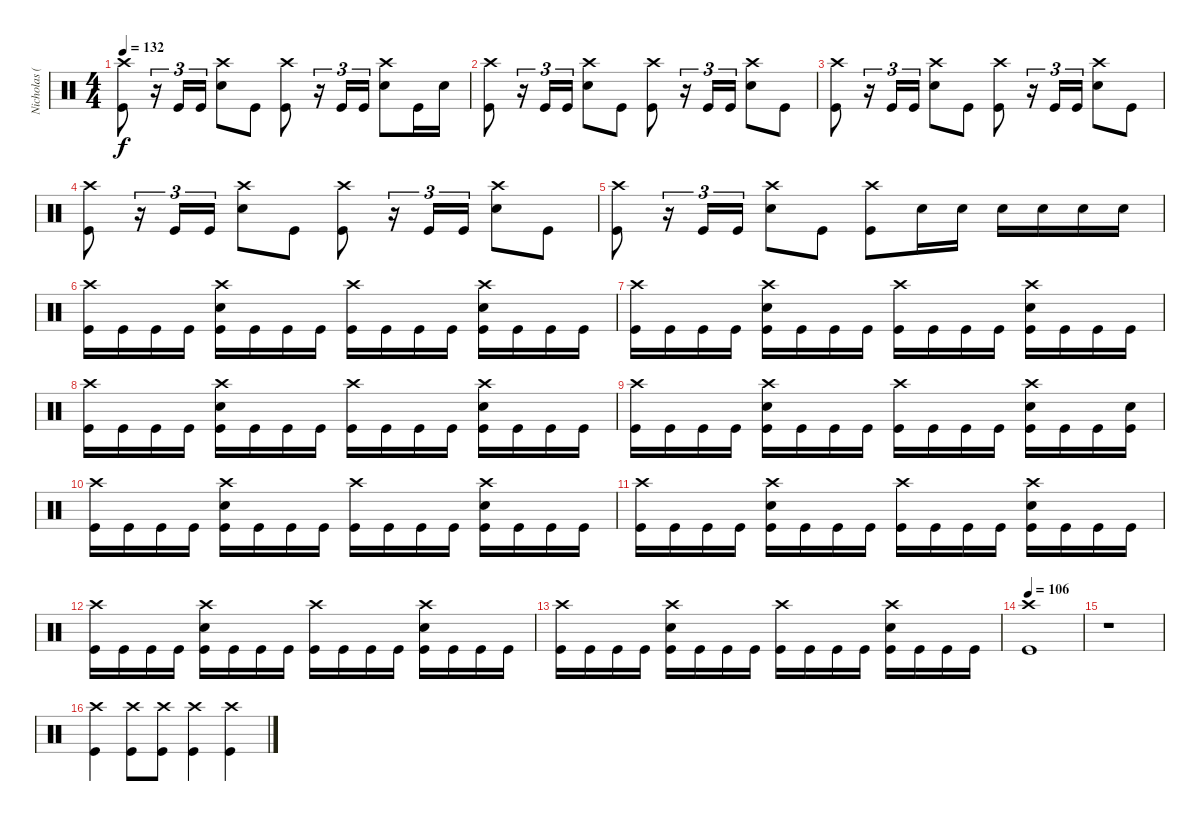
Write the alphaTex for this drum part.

\track ("Nicholas (Drums)" "Nicholas (") {instrument percussion}
\staff {score}
\articulation defaults
\ts (4 4)
\tempo 132
\clef neutral
\ks c
("Crash high (hit)" "Kick (hit)").8{dy f} r.16{tu (3 2)} "Kick (hit)".16{tu (3 2)} "Kick (hit)".16{tu (3 2)} ("Crash high (hit)" "Electric Snare (hit)").8 "Kick (hit)".8 ("Crash high (hit)" "Kick (hit)").8 r.16{tu (3 2)} "Kick (hit)".16{tu (3 2)} "Kick (hit)".16{tu (3 2)} ("Crash high (hit)" "Electric Snare (hit)").8 "Kick (hit)".16 "Electric Snare (hit)".16 |
("Crash high (hit)" "Kick (hit)").8 r.16{tu (3 2)} "Kick (hit)".16{tu (3 2)} "Kick (hit)".16{tu (3 2)} ("Crash high (hit)" "Electric Snare (hit)").8 "Kick (hit)".8 ("Crash high (hit)" "Kick (hit)").8 r.16{tu (3 2)} "Kick (hit)".16{tu (3 2)} "Kick (hit)".16{tu (3 2)} ("Crash high (hit)" "Electric Snare (hit)").8 "Kick (hit)".8 |
("Crash high (hit)" "Kick (hit)").8 r.16{tu (3 2)} "Kick (hit)".16{tu (3 2)} "Kick (hit)".16{tu (3 2)} ("Crash high (hit)" "Electric Snare (hit)").8 "Kick (hit)".8 ("Crash high (hit)" "Kick (hit)").8 r.16{tu (3 2)} "Kick (hit)".16{tu (3 2)} "Kick (hit)".16{tu (3 2)} ("Crash high (hit)" "Electric Snare (hit)").8 "Kick (hit)".8 |
("Crash high (hit)" "Kick (hit)").8 r.16{tu (3 2)} "Kick (hit)".16{tu (3 2)} "Kick (hit)".16{tu (3 2)} ("Crash high (hit)" "Electric Snare (hit)").8 "Kick (hit)".8 ("Crash high (hit)" "Kick (hit)").8 r.16{tu (3 2)} "Kick (hit)".16{tu (3 2)} "Kick (hit)".16{tu (3 2)} ("Crash high (hit)" "Electric Snare (hit)").8 "Kick (hit)".8 |
("Crash high (hit)" "Kick (hit)").8 r.16{tu (3 2)} "Kick (hit)".16{tu (3 2)} "Kick (hit)".16{tu (3 2)} ("Crash high (hit)" "Electric Snare (hit)").8 "Kick (hit)".8 ("Crash high (hit)" "Kick (hit)").8 "Electric Snare (hit)".16 "Electric Snare (hit)".16 "Electric Snare (hit)".16 "Electric Snare (hit)".16 "Electric Snare (hit)".16 "Electric Snare (hit)".16 |
("Crash high (hit)" "Kick (hit)").16 "Kick (hit)".16 "Kick (hit)".16 "Kick (hit)".16 ("Crash high (hit)" "Electric Snare (hit)" "Kick (hit)").16 "Kick (hit)".16 "Kick (hit)".16 "Kick (hit)".16 ("Crash high (hit)" "Kick (hit)").16 "Kick (hit)".16 "Kick (hit)".16 "Kick (hit)".16 ("Crash high (hit)" "Electric Snare (hit)" "Kick (hit)").16 "Kick (hit)".16 "Kick (hit)".16 "Kick (hit)".16 |
("Crash high (hit)" "Kick (hit)").16 "Kick (hit)".16 "Kick (hit)".16 "Kick (hit)".16 ("Crash high (hit)" "Electric Snare (hit)" "Kick (hit)").16 "Kick (hit)".16 "Kick (hit)".16 "Kick (hit)".16 ("Crash high (hit)" "Kick (hit)").16 "Kick (hit)".16 "Kick (hit)".16 "Kick (hit)".16 ("Crash high (hit)" "Electric Snare (hit)" "Kick (hit)").16 "Kick (hit)".16 "Kick (hit)".16 "Kick (hit)".16 |
("Crash high (hit)" "Kick (hit)").16 "Kick (hit)".16 "Kick (hit)".16 "Kick (hit)".16 ("Crash high (hit)" "Electric Snare (hit)" "Kick (hit)").16 "Kick (hit)".16 "Kick (hit)".16 "Kick (hit)".16 ("Crash high (hit)" "Kick (hit)").16 "Kick (hit)".16 "Kick (hit)".16 "Kick (hit)".16 ("Crash high (hit)" "Electric Snare (hit)" "Kick (hit)").16 "Kick (hit)".16 "Kick (hit)".16 "Kick (hit)".16 |
("Crash high (hit)" "Kick (hit)").16 "Kick (hit)".16 "Kick (hit)".16 "Kick (hit)".16 ("Crash high (hit)" "Electric Snare (hit)" "Kick (hit)").16 "Kick (hit)".16 "Kick (hit)".16 "Kick (hit)".16 ("Crash high (hit)" "Kick (hit)").16 "Kick (hit)".16 "Kick (hit)".16 "Kick (hit)".16 ("Crash high (hit)" "Electric Snare (hit)" "Kick (hit)").16 "Kick (hit)".16 "Kick (hit)".16 ("Electric Snare (hit)" "Kick (hit)").16 |
("Crash high (hit)" "Kick (hit)").16 "Kick (hit)".16 "Kick (hit)".16 "Kick (hit)".16 ("Crash high (hit)" "Electric Snare (hit)" "Kick (hit)").16 "Kick (hit)".16 "Kick (hit)".16 "Kick (hit)".16 ("Crash high (hit)" "Kick (hit)").16 "Kick (hit)".16 "Kick (hit)".16 "Kick (hit)".16 ("Crash high (hit)" "Electric Snare (hit)" "Kick (hit)").16 "Kick (hit)".16 "Kick (hit)".16 "Kick (hit)".16 |
("Crash high (hit)" "Kick (hit)").16 "Kick (hit)".16 "Kick (hit)".16 "Kick (hit)".16 ("Crash high (hit)" "Electric Snare (hit)" "Kick (hit)").16 "Kick (hit)".16 "Kick (hit)".16 "Kick (hit)".16 ("Crash high (hit)" "Kick (hit)").16 "Kick (hit)".16 "Kick (hit)".16 "Kick (hit)".16 ("Crash high (hit)" "Electric Snare (hit)" "Kick (hit)").16 "Kick (hit)".16 "Kick (hit)".16 "Kick (hit)".16 |
("Crash high (hit)" "Kick (hit)").16 "Kick (hit)".16 "Kick (hit)".16 "Kick (hit)".16 ("Crash high (hit)" "Electric Snare (hit)" "Kick (hit)").16 "Kick (hit)".16 "Kick (hit)".16 "Kick (hit)".16 ("Crash high (hit)" "Kick (hit)").16 "Kick (hit)".16 "Kick (hit)".16 "Kick (hit)".16 ("Crash high (hit)" "Electric Snare (hit)" "Kick (hit)").16 "Kick (hit)".16 "Kick (hit)".16 "Kick (hit)".16 |
("Crash high (hit)" "Kick (hit)").16 "Kick (hit)".16 "Kick (hit)".16 "Kick (hit)".16 ("Crash high (hit)" "Electric Snare (hit)" "Kick (hit)").16 "Kick (hit)".16 "Kick (hit)".16 "Kick (hit)".16 ("Crash high (hit)" "Kick (hit)").16 "Kick (hit)".16 "Kick (hit)".16 "Kick (hit)".16 ("Crash high (hit)" "Electric Snare (hit)" "Kick (hit)").16 "Kick (hit)".16 "Kick (hit)".16 "Kick (hit)".16 |
\tempo 106
("Crash high (hit)" "Kick (hit)").1 |
r.1 |
("Crash high (hit)" "Kick (hit)").4 ("Crash high (hit)" "Kick (hit)").8 ("Crash high (hit)" "Kick (hit)").8 ("Crash high (hit)" "Kick (hit)").4 ("Crash high (hit)" "Kick (hit)").4
